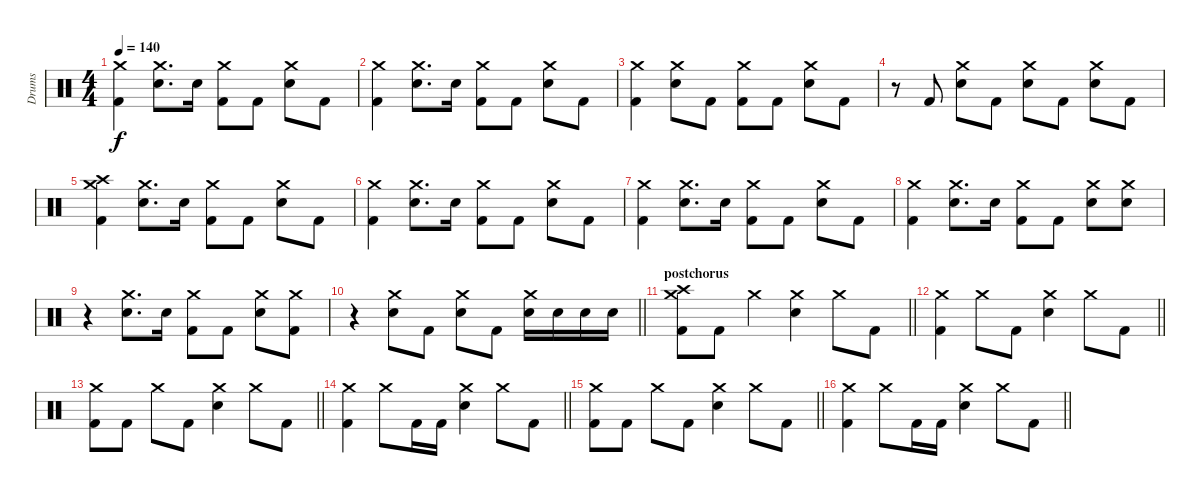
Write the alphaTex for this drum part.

\track ("Drums" "Drums") {instrument percussion}
\staff {score}
\articulation defaults
\ts (4 4)
\tempo 140
\clef neutral
\ks c
("Crash medium (hit)" "Kick (hit) 2").4{dy f} ("Crash medium (hit)" "Electric Snare (hit)").8{d} "Electric Snare (hit)".16 ("Crash medium (hit)" "Kick (hit) 2").8 "Kick (hit) 2".8 ("Crash medium (hit)" "Electric Snare (hit)").8 "Kick (hit) 2".8 |
("Crash medium (hit)" "Kick (hit) 2").4 ("Crash medium (hit)" "Electric Snare (hit)").8{d} "Electric Snare (hit)".16 ("Crash medium (hit)" "Kick (hit) 2").8 "Kick (hit) 2".8 ("Crash medium (hit)" "Electric Snare (hit)").8 "Kick (hit) 2".8 |
("Crash medium (hit)" "Kick (hit) 2").4 ("Crash medium (hit)" "Electric Snare (hit)").8 "Kick (hit) 2".8 ("Crash medium (hit)" "Kick (hit) 2").8 "Kick (hit) 2".8 ("Crash medium (hit)" "Electric Snare (hit)").8 "Kick (hit) 2".8 |
r.8 "Kick (hit) 2".8 ("Crash medium (hit)" "Electric Snare (hit)").8 "Kick (hit) 2".8 ("Crash medium (hit)" "Electric Snare (hit)").8 "Kick (hit) 2".8 ("Crash medium (hit)" "Electric Snare (hit)").8 "Kick (hit) 2".8 |
("Crash high (hit)" "Crash medium (hit)" "Kick (hit) 2").4 ("Crash medium (hit)" "Electric Snare (hit)").8{d} "Electric Snare (hit)".16 ("Crash medium (hit)" "Kick (hit) 2").8 "Kick (hit) 2".8 ("Crash medium (hit)" "Electric Snare (hit)").8 "Kick (hit) 2".8 |
("Crash medium (hit)" "Kick (hit) 2").4 ("Crash medium (hit)" "Electric Snare (hit)").8{d} "Electric Snare (hit)".16 ("Crash medium (hit)" "Kick (hit) 2").8 "Kick (hit) 2".8 ("Crash medium (hit)" "Electric Snare (hit)").8 "Kick (hit) 2".8 |
("Crash medium (hit)" "Kick (hit) 2").4 ("Crash medium (hit)" "Electric Snare (hit)").8{d} "Electric Snare (hit)".16 ("Crash medium (hit)" "Kick (hit) 2").8 "Kick (hit) 2".8 ("Crash medium (hit)" "Electric Snare (hit)").8 "Kick (hit) 2".8 |
("Crash medium (hit)" "Kick (hit) 2").4 ("Crash medium (hit)" "Electric Snare (hit)").8{d} "Electric Snare (hit)".16 ("Crash medium (hit)" "Kick (hit) 2").8 "Kick (hit) 2".8 ("Crash medium (hit)" "Electric Snare (hit)").8 ("Crash medium (hit)" "Electric Snare (hit)").8 |
r.4 ("Crash medium (hit)" "Electric Snare (hit)").8{d} "Electric Snare (hit)".16 ("Crash medium (hit)" "Kick (hit) 2").8 "Kick (hit) 2".8 ("Crash medium (hit)" "Electric Snare (hit)").8 ("Crash medium (hit)" "Kick (hit) 2").8 |
\barLineRight lightlight
r.4 ("Crash medium (hit)" "Electric Snare (hit)").8 "Kick (hit) 2".8 ("Crash medium (hit)" "Electric Snare (hit)").8 "Kick (hit) 2".8 ("Crash medium (hit)" "Electric Snare (hit)").16 "Electric Snare (hit)".16 "Electric Snare (hit)".16 "Electric Snare (hit)".16 |
\section ("" "postchorus")
\barLineRight lightlight
("Crash high (hit)" "Crash medium (hit)" "Kick (hit) 2").8 "Kick (hit) 2".8 "Crash medium (hit)".4 ("Crash medium (hit)" "Electric Snare (hit)").4 "Crash medium (hit)".8 "Kick (hit) 2".8 |
\section ("" "")
\barLineRight lightlight
("Crash medium (hit)" "Kick (hit) 2").4 "Crash medium (hit)".8 "Kick (hit) 2".8 ("Crash medium (hit)" "Electric Snare (hit)").4 "Crash medium (hit)".8 "Kick (hit) 2".8 |
\barLineRight lightlight
("Crash medium (hit)" "Kick (hit) 2").8 "Kick (hit) 2".8 "Crash medium (hit)".8 "Kick (hit) 2".8 ("Crash medium (hit)" "Electric Snare (hit)").4 "Crash medium (hit)".8 "Kick (hit) 2".8 |
\barLineRight lightlight
("Crash medium (hit)" "Kick (hit) 2").4 "Crash medium (hit)".8 "Kick (hit) 2".16 "Kick (hit) 2".16 ("Crash medium (hit)" "Electric Snare (hit)").4 "Crash medium (hit)".8 "Kick (hit) 2".8 |
\barLineRight lightlight
("Crash medium (hit)" "Kick (hit) 2").8 "Kick (hit) 2".8 "Crash medium (hit)".8 "Kick (hit) 2".8 ("Crash medium (hit)" "Electric Snare (hit)").4 "Crash medium (hit)".8 "Kick (hit) 2".8 |
\barLineRight lightlight
("Crash medium (hit)" "Kick (hit) 2").4 "Crash medium (hit)".8 "Kick (hit) 2".16 "Kick (hit) 2".16 ("Crash medium (hit)" "Electric Snare (hit)").4 "Crash medium (hit)".8 "Kick (hit) 2".8
